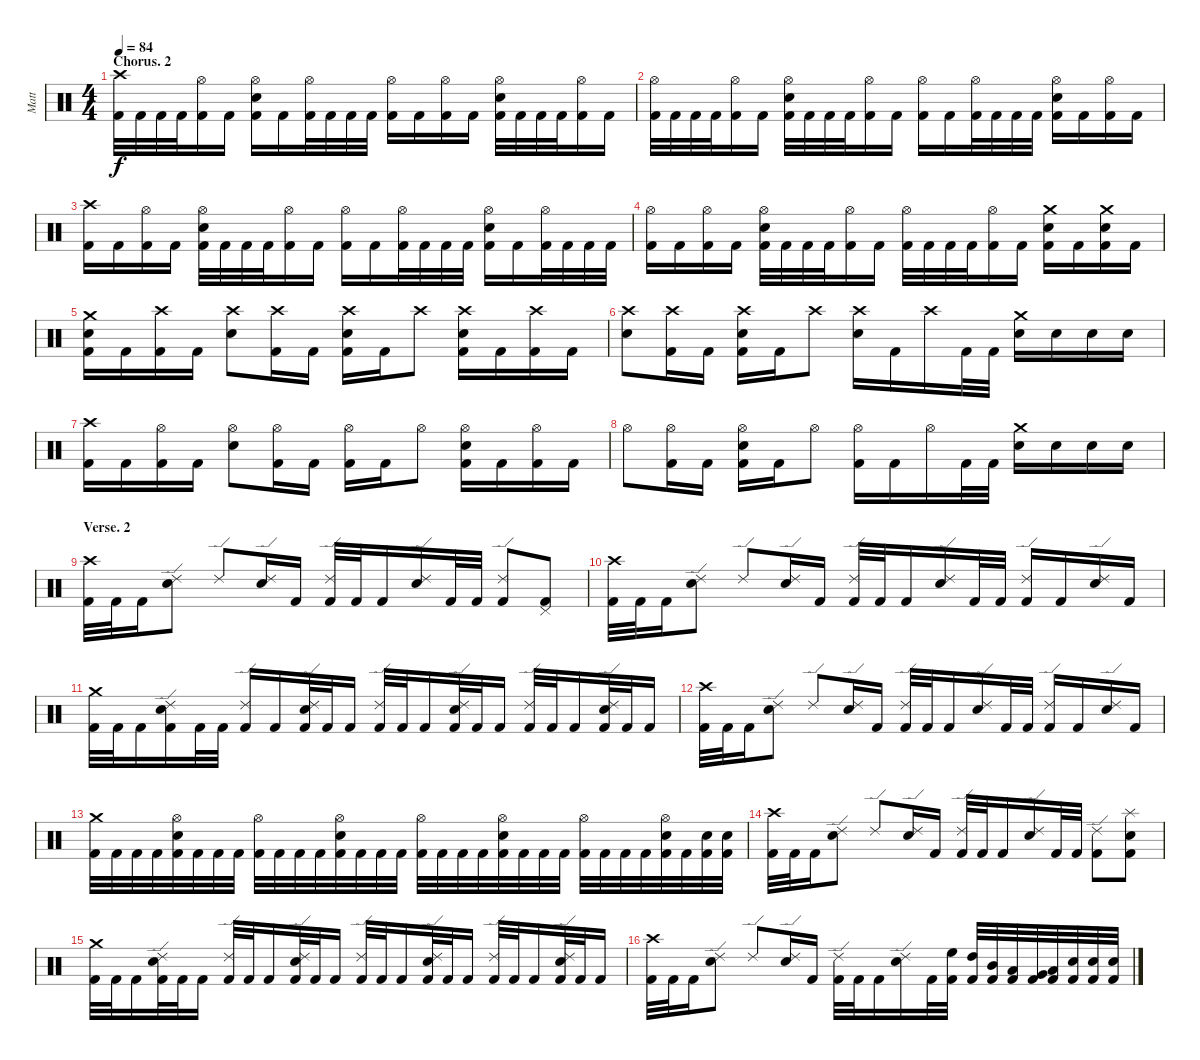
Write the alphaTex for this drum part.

\track ("Matt" "Matt") {instrument percussion}
\staff {score}
\articulation defaults
\ts (4 4)
\section ("" "Chorus. 2")
\tempo 84
\clef neutral
\ks c
("Crash high (hit)" "Kick (hit) 2").32{dy f} "Kick (hit) 2".32 "Kick (hit) 2".32 "Kick (hit) 2".32 ("Hi-Hat (open)" "Kick (hit) 2").16 "Kick (hit) 2".16 ("Hi-Hat (open)" "Electric Snare (hit)" "Kick (hit) 2").16 "Kick (hit) 2".16 ("Hi-Hat (open)" "Kick (hit) 2").32 "Kick (hit) 2".32 "Kick (hit) 2".32 "Kick (hit) 2".32 ("Hi-Hat (open)" "Kick (hit) 2").16 "Kick (hit) 2".16 ("Hi-Hat (open)" "Kick (hit) 2").16 "Kick (hit) 2".16 ("Hi-Hat (open)" "Electric Snare (hit)" "Kick (hit) 2").32 "Kick (hit) 2".32 "Kick (hit) 2".32 "Kick (hit) 2".32 ("Hi-Hat (open)" "Kick (hit) 2").16 "Kick (hit) 2".16 |
("Hi-Hat (open)" "Kick (hit) 2").32 "Kick (hit) 2".32 "Kick (hit) 2".32 "Kick (hit) 2".32 ("Hi-Hat (open)" "Kick (hit) 2").16 "Kick (hit) 2".16 ("Hi-Hat (open)" "Electric Snare (hit)" "Kick (hit) 2").32 "Kick (hit) 2".32 "Kick (hit) 2".32 "Kick (hit) 2".32 ("Hi-Hat (open)" "Kick (hit) 2").16 "Kick (hit) 2".16 ("Hi-Hat (open)" "Kick (hit) 2").16 "Kick (hit) 2".16 ("Hi-Hat (open)" "Kick (hit) 2").32 "Kick (hit) 2".32 "Kick (hit) 2".32 "Kick (hit) 2".32 ("Hi-Hat (open)" "Electric Snare (hit)" "Kick (hit) 2").16 "Kick (hit) 2".16 ("Hi-Hat (open)" "Kick (hit) 2").16 "Kick (hit) 2".16 |
("Crash high (hit)" "Kick (hit) 2").16 "Kick (hit) 2".16 ("Hi-Hat (open)" "Kick (hit) 2").16 "Kick (hit) 2".16 ("Hi-Hat (open)" "Electric Snare (hit)" "Kick (hit) 2").32 "Kick (hit) 2".32 "Kick (hit) 2".32 "Kick (hit) 2".32 ("Hi-Hat (open)" "Kick (hit) 2").16 "Kick (hit) 2".16 ("Hi-Hat (open)" "Kick (hit) 2").16 "Kick (hit) 2".16 ("Hi-Hat (open)" "Kick (hit) 2").32 "Kick (hit) 2".32 "Kick (hit) 2".32 "Kick (hit) 2".32 ("Hi-Hat (open)" "Electric Snare (hit)" "Kick (hit) 2").16 "Kick (hit) 2".16 ("Hi-Hat (open)" "Kick (hit) 2").32 "Kick (hit) 2".32 "Kick (hit) 2".32 "Kick (hit) 2".32 |
("Hi-Hat (open)" "Kick (hit) 2").16 "Kick (hit) 2".16 ("Hi-Hat (open)" "Kick (hit) 2").16 "Kick (hit) 2".16 ("Hi-Hat (open)" "Electric Snare (hit)" "Kick (hit) 2").32 "Kick (hit) 2".32 "Kick (hit) 2".32 "Kick (hit) 2".32 ("Hi-Hat (open)" "Kick (hit) 2").16 "Kick (hit) 2".16 ("Hi-Hat (open)" "Kick (hit) 2").32 "Kick (hit) 2".32 "Kick (hit) 2".32 "Kick (hit) 2".32 ("Hi-Hat (open)" "Kick (hit) 2").16 "Kick (hit) 2".16 ("Crash medium (hit)" "Electric Snare (hit)" "Kick (hit) 2").16 "Kick (hit) 2".16 ("Crash medium (hit)" "Electric Snare (hit)" "Kick (hit) 2").16 "Kick (hit) 2".16 |
("Crash medium (hit)" "Electric Snare (hit)" "Kick (hit) 2").16 "Kick (hit) 2".16 ("Crash high (hit)" "Kick (hit) 2").16 "Kick (hit) 2".16 ("Crash high (hit)" "Electric Snare (hit)").8 ("Crash high (hit)" "Kick (hit) 2").16 "Kick (hit) 2".16 ("Crash high (hit)" "Electric Snare (hit)" "Kick (hit) 2").16 "Kick (hit) 2".16 "Crash high (hit)".8 ("Crash high (hit)" "Electric Snare (hit)" "Kick (hit) 2").16 "Kick (hit) 2".16 ("Crash high (hit)" "Kick (hit) 2").16 "Kick (hit) 2".16 |
("Crash high (hit)" "Electric Snare (hit)").8 ("Crash high (hit)" "Kick (hit) 2").16 "Kick (hit) 2".16 ("Crash high (hit)" "Electric Snare (hit)" "Kick (hit) 2").16 "Kick (hit) 2".16 "Crash high (hit)".8 ("Crash high (hit)" "Electric Snare (hit)").16 "Kick (hit) 2".16 "Crash high (hit)".16 "Kick (hit) 2".32 "Kick (hit) 2".32 ("Crash medium (hit)" "Electric Snare (hit)").16 "Electric Snare (hit)".16 "Electric Snare (hit)".16 "Electric Snare (hit)".16 |
("Crash high (hit)" "Kick (hit) 2").16 "Kick (hit) 2".16 ("Hi-Hat (open)" "Kick (hit) 2").16 "Kick (hit) 2".16 ("Hi-Hat (open)" "Electric Snare (hit)").8 ("Hi-Hat (open)" "Kick (hit) 2").16 "Kick (hit) 2".16 ("Hi-Hat (open)" "Kick (hit) 2").16 "Kick (hit) 2".16 "Hi-Hat (open)".8 ("Hi-Hat (open)" "Electric Snare (hit)" "Kick (hit) 2").16 "Kick (hit) 2".16 ("Hi-Hat (open)" "Kick (hit) 2").16 "Kick (hit) 2".16 |
"Hi-Hat (open)".8 ("Hi-Hat (open)" "Kick (hit) 2").16 "Kick (hit) 2".16 ("Hi-Hat (open)" "Electric Snare (hit)" "Kick (hit) 2").16 "Kick (hit) 2".16 "Hi-Hat (open)".8 ("Hi-Hat (open)" "Kick (hit) 2").16 "Kick (hit) 2".16 "Hi-Hat (open)".16 "Kick (hit) 2".32 "Kick (hit) 2".32 ("Crash medium (hit)" "Electric Snare (hit)").16 "Electric Snare (hit)".16 "Electric Snare (hit)".16 "Electric Snare (hit)".16 |
\section ("" "Verse. 2")
("Crash high (hit)" "Kick (hit) 2").32 "Kick (hit) 2".32 "Kick (hit) 2".16 ("Ride (edge) 2" "Electric Snare (hit)").8 "Ride (edge) 2".8 ("Ride (edge) 2" "Electric Snare (hit)").16 "Kick (hit) 2".16 ("Ride (edge) 2" "Kick (hit) 2").32 "Kick (hit) 2".32 "Kick (hit) 2".16 ("Ride (edge) 2" "Electric Snare (hit)").16 "Kick (hit) 2".32 "Kick (hit) 2".32 ("Ride (edge) 2" "Kick (hit) 2").8 ("Pedal Hi-Hat (hit)" "Kick (hit) 2").8 |
("Crash high (hit)" "Kick (hit) 2").32 "Kick (hit) 2".32 "Kick (hit) 2".16 ("Ride (edge) 2" "Electric Snare (hit)").8 "Ride (edge) 2".8 ("Ride (edge) 2" "Electric Snare (hit)").16 "Kick (hit) 2".16 ("Ride (edge) 2" "Kick (hit) 2").32 "Kick (hit) 2".32 "Kick (hit) 2".16 ("Ride (edge) 2" "Electric Snare (hit)").16 "Kick (hit) 2".32 "Kick (hit) 2".32 ("Ride (edge) 2" "Kick (hit) 2").16 "Kick (hit) 2".16 ("Ride (edge) 2" "Electric Snare (hit)").16 "Kick (hit) 2".16 |
("Crash medium (hit)" "Kick (hit) 2").32 "Kick (hit) 2".32 "Kick (hit) 2".16 ("Ride (edge) 2" "Electric Snare (hit)" "Kick (hit) 2").16 "Kick (hit) 2".32 "Kick (hit) 2".32 ("Ride (edge) 2" "Kick (hit) 2").16 "Kick (hit) 2".16 ("Ride (edge) 2" "Electric Snare (hit)" "Kick (hit) 2").32 "Kick (hit) 2".32 "Kick (hit) 2".16 ("Ride (edge) 2" "Kick (hit) 2").32 "Kick (hit) 2".32 "Kick (hit) 2".16 ("Ride (edge) 2" "Electric Snare (hit)" "Kick (hit) 2").32 "Kick (hit) 2".32 "Kick (hit) 2".16 ("Ride (edge) 2" "Kick (hit) 2").32 "Kick (hit) 2".32 "Kick (hit) 2".16 ("Ride (edge) 2" "Electric Snare (hit)" "Kick (hit) 2").32 "Kick (hit) 2".32 "Kick (hit) 2".16 |
("Crash high (hit)" "Kick (hit) 2").32 "Kick (hit) 2".32 "Kick (hit) 2".16 ("Ride (edge) 2" "Electric Snare (hit)").8 "Ride (edge) 2".8 ("Ride (edge) 2" "Electric Snare (hit)").16 "Kick (hit) 2".16 ("Ride (edge) 2" "Kick (hit) 2").32 "Kick (hit) 2".32 "Kick (hit) 2".16 ("Ride (edge) 2" "Electric Snare (hit)").16 "Kick (hit) 2".32 "Kick (hit) 2".32 ("Ride (edge) 2" "Kick (hit) 2").16 "Kick (hit) 2".16 ("Ride (edge) 2" "Electric Snare (hit)").16 "Kick (hit) 2".16 |
("Crash medium (hit)" "Kick (hit) 2").32 "Kick (hit) 2".32 "Kick (hit) 2".32 "Kick (hit) 2".32 ("Hi-Hat (open)" "Electric Snare (hit)" "Kick (hit) 2").32 "Kick (hit) 2".32 "Kick (hit) 2".32 "Kick (hit) 2".32 ("Hi-Hat (open)" "Kick (hit) 2").32 "Kick (hit) 2".32 "Kick (hit) 2".32 "Kick (hit) 2".32 ("Hi-Hat (open)" "Electric Snare (hit)" "Kick (hit) 2").32 "Kick (hit) 2".32 "Kick (hit) 2".32 "Kick (hit) 2".32 ("Hi-Hat (open)" "Kick (hit) 2").32 "Kick (hit) 2".32 "Kick (hit) 2".32 "Kick (hit) 2".32 ("Hi-Hat (open)" "Electric Snare (hit)" "Kick (hit) 2").32 "Kick (hit) 2".32 "Kick (hit) 2".32 "Kick (hit) 2".32 ("Hi-Hat (open)" "Kick (hit) 2").32 "Kick (hit) 2".32 "Kick (hit) 2".32 "Kick (hit) 2".32 ("Hi-Hat (open)" "Electric Snare (hit)" "Kick (hit) 2").32 "Kick (hit) 2".32 ("Electric Snare (hit)" "Kick (hit) 2").32 ("Electric Snare (hit)" "Kick (hit) 2").32 |
("Crash high (hit)" "Kick (hit) 2").32 "Kick (hit) 2".32 "Kick (hit) 2".16 ("Ride (edge) 2" "Electric Snare (hit)").8 "Ride (edge) 2".8 ("Ride (edge) 2" "Electric Snare (hit)").16 "Kick (hit) 2".16 ("Ride (edge) 2" "Kick (hit) 2").32 "Kick (hit) 2".32 "Kick (hit) 2".16 ("Ride (edge) 2" "Electric Snare (hit)").16 "Kick (hit) 2".32 "Kick (hit) 2".32 ("Ride (edge) 2" "Kick (hit) 2").8 ("Splash (hit)" "Electric Snare (hit)" "Kick (hit) 2").8 |
("Crash medium (hit)" "Kick (hit) 2").32 "Kick (hit) 2".32 "Kick (hit) 2".16 ("Ride (edge) 2" "Electric Snare (hit)" "Kick (hit) 2").32 "Kick (hit) 2".32 "Kick (hit) 2".16 ("Ride (edge) 2" "Kick (hit) 2").32 "Kick (hit) 2".32 "Kick (hit) 2".16 ("Ride (edge) 2" "Electric Snare (hit)" "Kick (hit) 2").32 "Kick (hit) 2".32 "Kick (hit) 2".16 ("Ride (edge) 2" "Kick (hit) 2").32 "Kick (hit) 2".32 "Kick (hit) 2".16 ("Ride (edge) 2" "Electric Snare (hit)" "Kick (hit) 2").32 "Kick (hit) 2".32 "Kick (hit) 2".16 ("Ride (edge) 2" "Kick (hit) 2").32 "Kick (hit) 2".32 "Kick (hit) 2".16 ("Ride (edge) 2" "Electric Snare (hit)" "Kick (hit) 2").32 "Kick (hit) 2".32 "Kick (hit) 2".16 |
("Crash high (hit)" "Kick (hit) 2").32 "Kick (hit) 2".32 "Kick (hit) 2".16 ("Ride (edge) 2" "Electric Snare (hit)").8 "Ride (edge) 2".8 ("Ride (edge) 2" "Electric Snare (hit)").16 "Kick (hit) 2".16 ("Ride (edge) 2" "Kick (hit) 2").32 "Kick (hit) 2".32 "Kick (hit) 2".16 ("Ride (edge) 2" "Electric Snare (hit)").16 "Kick (hit) 2".32 ("High Floor Tom (hit)" "Kick (hit) 2").32 ("High Tom (hit)" "Kick (hit) 2").32 ("Mid Tom (hit)" "Kick (hit) 2").32 ("Low Tom (hit)" "Kick (hit) 2").32 ("Very Low Tom (hit)" "Kick (hit) 2").32 ("Low Tom (hit)" "Kick (hit) 2").32 ("Electric Snare (hit)" "Kick (hit) 2").32 ("Electric Snare (hit)" "Kick (hit) 2").32 ("Electric Snare (hit)" "Kick (hit) 2").32
